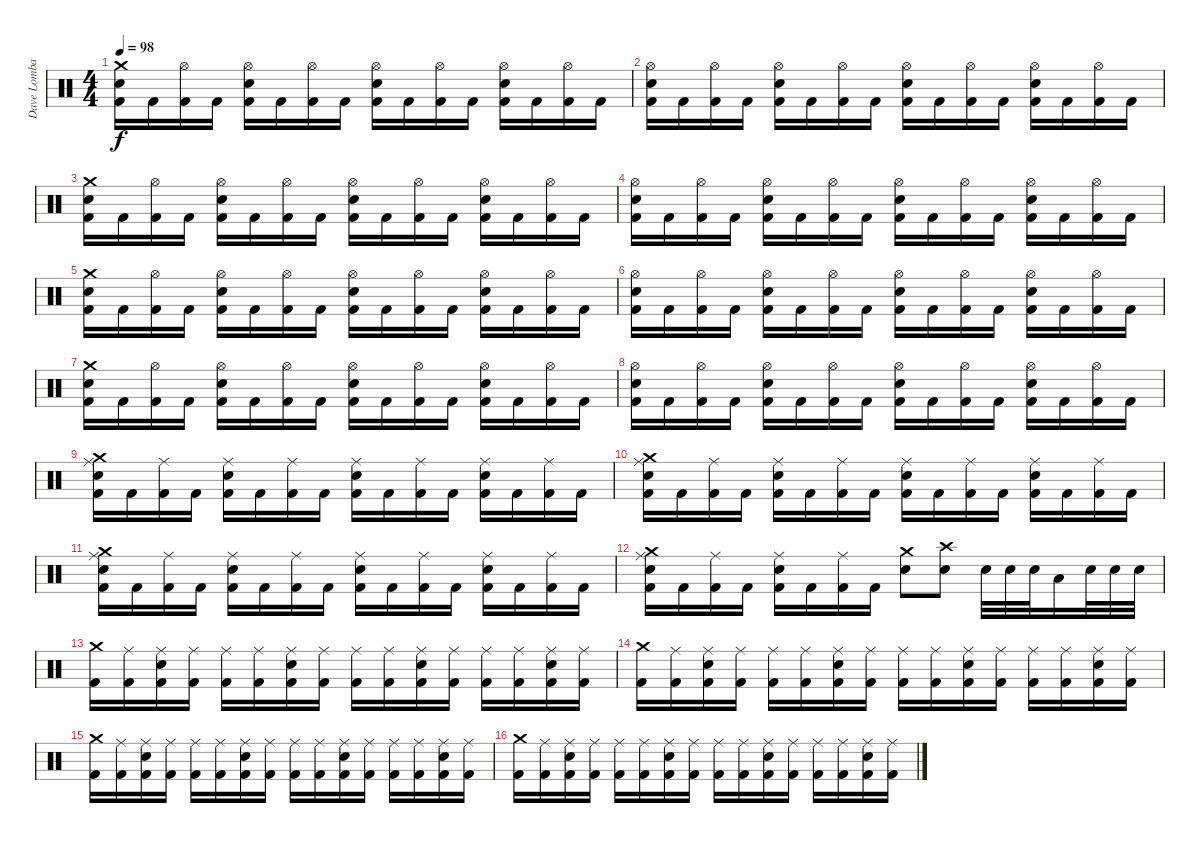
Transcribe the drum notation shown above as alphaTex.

\track ("Dave Lombardo" "Dave Lomba") {instrument percussion}
\staff {score}
\articulation defaults
\ts (4 4)
\tempo 98
\clef neutral
\ks c
("Electric Snare (hit)" "Crash medium (hit)" "Kick (hit) 2").16{dy f} "Kick (hit) 2".16 ("Hi-Hat (open)" "Kick (hit) 2").16 "Kick (hit) 2".16 ("Electric Snare (hit)" "Hi-Hat (open)" "Kick (hit) 2").16 "Kick (hit) 2".16 ("Hi-Hat (open)" "Kick (hit) 2").16 "Kick (hit) 2".16 ("Electric Snare (hit)" "Hi-Hat (open)" "Kick (hit) 2").16 "Kick (hit) 2".16 ("Hi-Hat (open)" "Kick (hit) 2").16 "Kick (hit) 2".16 ("Electric Snare (hit)" "Hi-Hat (open)" "Kick (hit) 2").16 "Kick (hit) 2".16 ("Hi-Hat (open)" "Kick (hit) 2").16 "Kick (hit) 2".16 |
("Electric Snare (hit)" "Hi-Hat (open)" "Kick (hit) 2").16 "Kick (hit) 2".16 ("Hi-Hat (open)" "Kick (hit) 2").16 "Kick (hit) 2".16 ("Electric Snare (hit)" "Hi-Hat (open)" "Kick (hit) 2").16 "Kick (hit) 2".16 ("Hi-Hat (open)" "Kick (hit) 2").16 "Kick (hit) 2".16 ("Electric Snare (hit)" "Hi-Hat (open)" "Kick (hit) 2").16 "Kick (hit) 2".16 ("Hi-Hat (open)" "Kick (hit) 2").16 "Kick (hit) 2".16 ("Electric Snare (hit)" "Hi-Hat (open)" "Kick (hit) 2").16 "Kick (hit) 2".16 ("Hi-Hat (open)" "Kick (hit) 2").16 "Kick (hit) 2".16 |
("Electric Snare (hit)" "Crash medium (hit)" "Kick (hit) 2").16 "Kick (hit) 2".16 ("Hi-Hat (open)" "Kick (hit) 2").16 "Kick (hit) 2".16 ("Electric Snare (hit)" "Hi-Hat (open)" "Kick (hit) 2").16 "Kick (hit) 2".16 ("Hi-Hat (open)" "Kick (hit) 2").16 "Kick (hit) 2".16 ("Electric Snare (hit)" "Hi-Hat (open)" "Kick (hit) 2").16 "Kick (hit) 2".16 ("Hi-Hat (open)" "Kick (hit) 2").16 "Kick (hit) 2".16 ("Electric Snare (hit)" "Hi-Hat (open)" "Kick (hit) 2").16 "Kick (hit) 2".16 ("Hi-Hat (open)" "Kick (hit) 2").16 "Kick (hit) 2".16 |
("Electric Snare (hit)" "Hi-Hat (open)" "Kick (hit) 2").16 "Kick (hit) 2".16 ("Hi-Hat (open)" "Kick (hit) 2").16 "Kick (hit) 2".16 ("Electric Snare (hit)" "Hi-Hat (open)" "Kick (hit) 2").16 "Kick (hit) 2".16 ("Hi-Hat (open)" "Kick (hit) 2").16 "Kick (hit) 2".16 ("Electric Snare (hit)" "Hi-Hat (open)" "Kick (hit) 2").16 "Kick (hit) 2".16 ("Hi-Hat (open)" "Kick (hit) 2").16 "Kick (hit) 2".16 ("Electric Snare (hit)" "Hi-Hat (open)" "Kick (hit) 2").16 "Kick (hit) 2".16 ("Hi-Hat (open)" "Kick (hit) 2").16 "Kick (hit) 2".16 |
("Electric Snare (hit)" "Crash medium (hit)" "Kick (hit) 2").16 "Kick (hit) 2".16 ("Hi-Hat (open)" "Kick (hit) 2").16 "Kick (hit) 2".16 ("Electric Snare (hit)" "Hi-Hat (open)" "Kick (hit) 2").16 "Kick (hit) 2".16 ("Hi-Hat (open)" "Kick (hit) 2").16 "Kick (hit) 2".16 ("Electric Snare (hit)" "Hi-Hat (open)" "Kick (hit) 2").16 "Kick (hit) 2".16 ("Hi-Hat (open)" "Kick (hit) 2").16 "Kick (hit) 2".16 ("Electric Snare (hit)" "Hi-Hat (open)" "Kick (hit) 2").16 "Kick (hit) 2".16 ("Hi-Hat (open)" "Kick (hit) 2").16 "Kick (hit) 2".16 |
("Electric Snare (hit)" "Hi-Hat (open)" "Kick (hit) 2").16 "Kick (hit) 2".16 ("Hi-Hat (open)" "Kick (hit) 2").16 "Kick (hit) 2".16 ("Electric Snare (hit)" "Hi-Hat (open)" "Kick (hit) 2").16 "Kick (hit) 2".16 ("Hi-Hat (open)" "Kick (hit) 2").16 "Kick (hit) 2".16 ("Electric Snare (hit)" "Hi-Hat (open)" "Kick (hit) 2").16 "Kick (hit) 2".16 ("Hi-Hat (open)" "Kick (hit) 2").16 "Kick (hit) 2".16 ("Electric Snare (hit)" "Hi-Hat (open)" "Kick (hit) 2").16 "Kick (hit) 2".16 ("Hi-Hat (open)" "Kick (hit) 2").16 "Kick (hit) 2".16 |
("Electric Snare (hit)" "Crash medium (hit)" "Kick (hit) 2").16 "Kick (hit) 2".16 ("Hi-Hat (open)" "Kick (hit) 2").16 "Kick (hit) 2".16 ("Electric Snare (hit)" "Hi-Hat (open)" "Kick (hit) 2").16 "Kick (hit) 2".16 ("Hi-Hat (open)" "Kick (hit) 2").16 "Kick (hit) 2".16 ("Electric Snare (hit)" "Hi-Hat (open)" "Kick (hit) 2").16 "Kick (hit) 2".16 ("Hi-Hat (open)" "Kick (hit) 2").16 "Kick (hit) 2".16 ("Electric Snare (hit)" "Hi-Hat (open)" "Kick (hit) 2").16 "Kick (hit) 2".16 ("Hi-Hat (open)" "Kick (hit) 2").16 "Kick (hit) 2".16 |
("Electric Snare (hit)" "Hi-Hat (open)" "Kick (hit) 2").16 "Kick (hit) 2".16 ("Hi-Hat (open)" "Kick (hit) 2").16 "Kick (hit) 2".16 ("Electric Snare (hit)" "Hi-Hat (open)" "Kick (hit) 2").16 "Kick (hit) 2".16 ("Hi-Hat (open)" "Kick (hit) 2").16 "Kick (hit) 2".16 ("Electric Snare (hit)" "Hi-Hat (open)" "Kick (hit) 2").16 "Kick (hit) 2".16 ("Hi-Hat (open)" "Kick (hit) 2").16 "Kick (hit) 2".16 ("Electric Snare (hit)" "Hi-Hat (open)" "Kick (hit) 2").16 "Kick (hit) 2".16 ("Hi-Hat (open)" "Kick (hit) 2").16 "Kick (hit) 2".16 |
("Crash medium (hit)" "Electric Snare (hit)" "Ride (middle)" "Kick (hit) 2").16 "Kick (hit) 2".16 ("Ride (middle)" "Kick (hit) 2").16 "Kick (hit) 2".16 ("Electric Snare (hit)" "Ride (middle)" "Kick (hit) 2").16 "Kick (hit) 2".16 ("Ride (middle)" "Kick (hit) 2").16 "Kick (hit) 2".16 ("Electric Snare (hit)" "Ride (middle)" "Kick (hit) 2").16 "Kick (hit) 2".16 ("Ride (middle)" "Kick (hit) 2").16 "Kick (hit) 2".16 ("Electric Snare (hit)" "Ride (middle)" "Kick (hit) 2").16 "Kick (hit) 2".16 ("Ride (middle)" "Kick (hit) 2").16 "Kick (hit) 2".16 |
("Crash medium (hit)" "Electric Snare (hit)" "Ride (middle)" "Kick (hit) 2").16 "Kick (hit) 2".16 ("Ride (middle)" "Kick (hit) 2").16 "Kick (hit) 2".16 ("Electric Snare (hit)" "Ride (middle)" "Kick (hit) 2").16 "Kick (hit) 2".16 ("Ride (middle)" "Kick (hit) 2").16 "Kick (hit) 2".16 ("Electric Snare (hit)" "Ride (middle)" "Kick (hit) 2").16 "Kick (hit) 2".16 ("Ride (middle)" "Kick (hit) 2").16 "Kick (hit) 2".16 ("Electric Snare (hit)" "Ride (middle)" "Kick (hit) 2").16 "Kick (hit) 2".16 ("Ride (middle)" "Kick (hit) 2").16 "Kick (hit) 2".16 |
("Crash medium (hit)" "Electric Snare (hit)" "Ride (middle)" "Kick (hit) 2").16 "Kick (hit) 2".16 ("Ride (middle)" "Kick (hit) 2").16 "Kick (hit) 2".16 ("Electric Snare (hit)" "Ride (middle)" "Kick (hit) 2").16 "Kick (hit) 2".16 ("Ride (middle)" "Kick (hit) 2").16 "Kick (hit) 2".16 ("Electric Snare (hit)" "Ride (middle)" "Kick (hit) 2").16 "Kick (hit) 2".16 ("Ride (middle)" "Kick (hit) 2").16 "Kick (hit) 2".16 ("Electric Snare (hit)" "Ride (middle)" "Kick (hit) 2").16 "Kick (hit) 2".16 ("Ride (middle)" "Kick (hit) 2").16 "Kick (hit) 2".16 |
("Crash medium (hit)" "Electric Snare (hit)" "Ride (middle)" "Kick (hit) 2").16 "Kick (hit) 2".16 ("Ride (middle)" "Kick (hit) 2").16 "Kick (hit) 2".16 ("Electric Snare (hit)" "Ride (middle)" "Kick (hit) 2").16 "Kick (hit) 2".16 ("Ride (middle)" "Kick (hit) 2").16 "Kick (hit) 2".16 ("Electric Snare (hit)" "Crash medium (hit)").8 ("Crash high (hit)" "Electric Snare (hit)").8 "Electric Snare (hit)".32 "Electric Snare (hit)".32 "Electric Snare (hit)".32 "Low Tom (hit)".16 "Electric Snare (hit)".32 "Electric Snare (hit)".32 "Electric Snare (hit)".32 |
("Crash medium (hit)" "Kick (hit) 2").16 ("Ride (middle)" "Kick (hit) 2").16 ("Electric Snare (hit)" "Ride (middle)" "Kick (hit) 2").16 ("Ride (middle)" "Kick (hit) 2").16 ("Ride (middle)" "Kick (hit) 2").16 ("Ride (middle)" "Kick (hit) 2").16 ("Electric Snare (hit)" "Ride (middle)" "Kick (hit) 2").16 ("Ride (middle)" "Kick (hit) 2").16 ("Ride (middle)" "Kick (hit) 2").16 ("Ride (middle)" "Kick (hit) 2").16 ("Electric Snare (hit)" "Ride (middle)" "Kick (hit) 2").16 ("Ride (middle)" "Kick (hit) 2").16 ("Ride (middle)" "Kick (hit) 2").16 ("Ride (middle)" "Kick (hit) 2").16 ("Electric Snare (hit)" "Ride (middle)" "Kick (hit) 2").16 ("Ride (middle)" "Kick (hit) 2").16 |
("Crash medium (hit)" "Kick (hit) 2").16 ("Ride (middle)" "Kick (hit) 2").16 ("Electric Snare (hit)" "Ride (middle)" "Kick (hit) 2").16 ("Ride (middle)" "Kick (hit) 2").16 ("Ride (middle)" "Kick (hit) 2").16 ("Ride (middle)" "Kick (hit) 2").16 ("Electric Snare (hit)" "Ride (middle)" "Kick (hit) 2").16 ("Ride (middle)" "Kick (hit) 2").16 ("Ride (middle)" "Kick (hit) 2").16 ("Ride (middle)" "Kick (hit) 2").16 ("Electric Snare (hit)" "Ride (middle)" "Kick (hit) 2").16 ("Ride (middle)" "Kick (hit) 2").16 ("Ride (middle)" "Kick (hit) 2").16 ("Ride (middle)" "Kick (hit) 2").16 ("Electric Snare (hit)" "Ride (middle)" "Kick (hit) 2").16 ("Ride (middle)" "Kick (hit) 2").16 |
("Crash medium (hit)" "Kick (hit) 2").16 ("Ride (middle)" "Kick (hit) 2").16 ("Electric Snare (hit)" "Ride (middle)" "Kick (hit) 2").16 ("Ride (middle)" "Kick (hit) 2").16 ("Ride (middle)" "Kick (hit) 2").16 ("Ride (middle)" "Kick (hit) 2").16 ("Electric Snare (hit)" "Ride (middle)" "Kick (hit) 2").16 ("Ride (middle)" "Kick (hit) 2").16 ("Ride (middle)" "Kick (hit) 2").16 ("Ride (middle)" "Kick (hit) 2").16 ("Electric Snare (hit)" "Ride (middle)" "Kick (hit) 2").16 ("Ride (middle)" "Kick (hit) 2").16 ("Ride (middle)" "Kick (hit) 2").16 ("Ride (middle)" "Kick (hit) 2").16 ("Electric Snare (hit)" "Ride (middle)" "Kick (hit) 2").16 ("Ride (middle)" "Kick (hit) 2").16 |
("Crash medium (hit)" "Kick (hit) 2").16 ("Ride (middle)" "Kick (hit) 2").16 ("Electric Snare (hit)" "Ride (middle)" "Kick (hit) 2").16 ("Ride (middle)" "Kick (hit) 2").16 ("Ride (middle)" "Kick (hit) 2").16 ("Ride (middle)" "Kick (hit) 2").16 ("Electric Snare (hit)" "Ride (middle)" "Kick (hit) 2").16 ("Ride (middle)" "Kick (hit) 2").16 ("Ride (middle)" "Kick (hit) 2").16 ("Ride (middle)" "Kick (hit) 2").16 ("Electric Snare (hit)" "Ride (middle)" "Kick (hit) 2").16 ("Ride (middle)" "Kick (hit) 2").16 ("Ride (middle)" "Kick (hit) 2").16 ("Ride (middle)" "Kick (hit) 2").16 ("Electric Snare (hit)" "Ride (middle)" "Kick (hit) 2").16 ("Ride (middle)" "Kick (hit) 2").16
